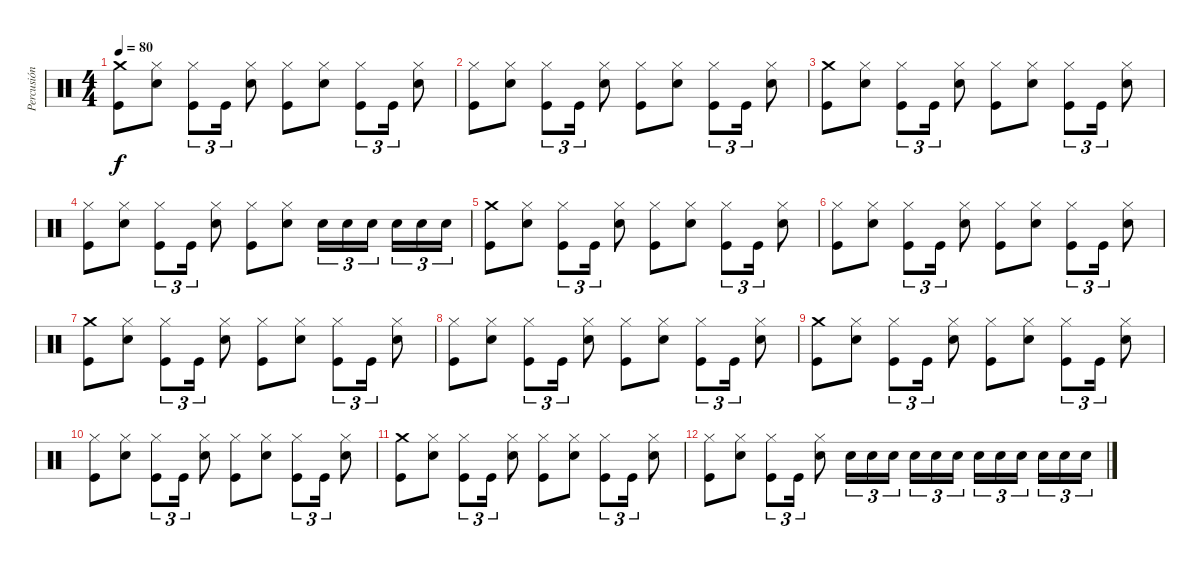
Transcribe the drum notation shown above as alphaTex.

\track ("Percusión" "Percusión") {mute instrument percussion}
\staff {score}
\articulation defaults
\ts (4 4)
\tempo 80
\clef neutral
\ks c
("Crash medium (hit)" "Kick (hit)").8{dy f} ("Hi-Hat (closed)" "Snare (hit) 2").8 ("Hi-Hat (closed)" "Kick (hit)").8{tu (3 2)} "Kick (hit)".16{tu (3 2)} ("Hi-Hat (closed)" "Snare (hit) 2").8 ("Hi-Hat (closed)" "Kick (hit)").8 ("Hi-Hat (closed)" "Snare (hit) 2").8 ("Hi-Hat (closed)" "Kick (hit)").8{tu (3 2)} "Kick (hit)".16{tu (3 2)} ("Hi-Hat (closed)" "Snare (hit) 2").8 |
("Hi-Hat (closed)" "Kick (hit)").8 ("Hi-Hat (closed)" "Snare (hit) 2").8 ("Hi-Hat (closed)" "Kick (hit)").8{tu (3 2)} "Kick (hit)".16{tu (3 2)} ("Hi-Hat (closed)" "Snare (hit) 2").8 ("Hi-Hat (closed)" "Kick (hit)").8 ("Hi-Hat (closed)" "Snare (hit) 2").8 ("Hi-Hat (closed)" "Kick (hit)").8{tu (3 2)} "Kick (hit)".16{tu (3 2)} ("Hi-Hat (closed)" "Snare (hit) 2").8 |
("Crash medium (hit)" "Kick (hit)").8 ("Hi-Hat (closed)" "Snare (hit) 2").8 ("Hi-Hat (closed)" "Kick (hit)").8{tu (3 2)} "Kick (hit)".16{tu (3 2)} ("Hi-Hat (closed)" "Snare (hit) 2").8 ("Hi-Hat (closed)" "Kick (hit)").8 ("Hi-Hat (closed)" "Snare (hit) 2").8 ("Hi-Hat (closed)" "Kick (hit)").8{tu (3 2)} "Kick (hit)".16{tu (3 2)} ("Hi-Hat (closed)" "Snare (hit) 2").8 |
("Hi-Hat (closed)" "Kick (hit)").8 ("Hi-Hat (closed)" "Snare (hit) 2").8 ("Hi-Hat (closed)" "Kick (hit)").8{tu (3 2)} "Kick (hit)".16{tu (3 2)} ("Hi-Hat (closed)" "Snare (hit) 2").8 ("Hi-Hat (closed)" "Kick (hit)").8 ("Hi-Hat (closed)" "Snare (hit) 2").8 "Snare (hit) 2".16{tu (3 2)} "Snare (hit) 2".16{tu (3 2)} "Snare (hit) 2".16{tu (3 2) beam splitsecondary} "Snare (hit) 2".16{tu (3 2)} "Snare (hit) 2".16{tu (3 2)} "Snare (hit) 2".16{tu (3 2)} |
("Crash medium (hit)" "Kick (hit)").8 ("Hi-Hat (closed)" "Snare (hit) 2").8 ("Hi-Hat (closed)" "Kick (hit)").8{tu (3 2)} "Kick (hit)".16{tu (3 2)} ("Hi-Hat (closed)" "Snare (hit) 2").8 ("Hi-Hat (closed)" "Kick (hit)").8 ("Hi-Hat (closed)" "Snare (hit) 2").8 ("Hi-Hat (closed)" "Kick (hit)").8{tu (3 2)} "Kick (hit)".16{tu (3 2)} ("Hi-Hat (closed)" "Snare (hit) 2").8 |
("Hi-Hat (closed)" "Kick (hit)").8 ("Hi-Hat (closed)" "Snare (hit) 2").8 ("Hi-Hat (closed)" "Kick (hit)").8{tu (3 2)} "Kick (hit)".16{tu (3 2)} ("Hi-Hat (closed)" "Snare (hit) 2").8 ("Hi-Hat (closed)" "Kick (hit)").8 ("Hi-Hat (closed)" "Snare (hit) 2").8 ("Hi-Hat (closed)" "Kick (hit)").8{tu (3 2)} "Kick (hit)".16{tu (3 2)} ("Hi-Hat (closed)" "Snare (hit) 2").8 |
("Crash medium (hit)" "Kick (hit)").8 ("Hi-Hat (closed)" "Snare (hit) 2").8 ("Hi-Hat (closed)" "Kick (hit)").8{tu (3 2)} "Kick (hit)".16{tu (3 2)} ("Hi-Hat (closed)" "Snare (hit) 2").8 ("Hi-Hat (closed)" "Kick (hit)").8 ("Hi-Hat (closed)" "Snare (hit) 2").8 ("Hi-Hat (closed)" "Kick (hit)").8{tu (3 2)} "Kick (hit)".16{tu (3 2)} ("Hi-Hat (closed)" "Snare (hit) 2").8 |
("Hi-Hat (closed)" "Kick (hit)").8 ("Hi-Hat (closed)" "Snare (hit) 2").8 ("Hi-Hat (closed)" "Kick (hit)").8{tu (3 2)} "Kick (hit)".16{tu (3 2)} ("Hi-Hat (closed)" "Snare (hit) 2").8 ("Hi-Hat (closed)" "Kick (hit)").8 ("Hi-Hat (closed)" "Snare (hit) 2").8 ("Hi-Hat (closed)" "Kick (hit)").8{tu (3 2)} "Kick (hit)".16{tu (3 2)} ("Hi-Hat (closed)" "Snare (hit) 2").8 |
("Crash medium (hit)" "Kick (hit)").8 ("Hi-Hat (closed)" "Snare (hit) 2").8 ("Hi-Hat (closed)" "Kick (hit)").8{tu (3 2)} "Kick (hit)".16{tu (3 2)} ("Hi-Hat (closed)" "Snare (hit) 2").8 ("Hi-Hat (closed)" "Kick (hit)").8 ("Hi-Hat (closed)" "Snare (hit) 2").8 ("Hi-Hat (closed)" "Kick (hit)").8{tu (3 2)} "Kick (hit)".16{tu (3 2)} ("Hi-Hat (closed)" "Snare (hit) 2").8 |
("Hi-Hat (closed)" "Kick (hit)").8 ("Hi-Hat (closed)" "Snare (hit) 2").8 ("Hi-Hat (closed)" "Kick (hit)").8{tu (3 2)} "Kick (hit)".16{tu (3 2)} ("Hi-Hat (closed)" "Snare (hit) 2").8 ("Hi-Hat (closed)" "Kick (hit)").8 ("Hi-Hat (closed)" "Snare (hit) 2").8 ("Hi-Hat (closed)" "Kick (hit)").8{tu (3 2)} "Kick (hit)".16{tu (3 2)} ("Hi-Hat (closed)" "Snare (hit) 2").8 |
("Crash medium (hit)" "Kick (hit)").8 ("Hi-Hat (closed)" "Snare (hit) 2").8 ("Hi-Hat (closed)" "Kick (hit)").8{tu (3 2)} "Kick (hit)".16{tu (3 2)} ("Hi-Hat (closed)" "Snare (hit) 2").8 ("Hi-Hat (closed)" "Kick (hit)").8 ("Hi-Hat (closed)" "Snare (hit) 2").8 ("Hi-Hat (closed)" "Kick (hit)").8{tu (3 2)} "Kick (hit)".16{tu (3 2)} ("Hi-Hat (closed)" "Snare (hit) 2").8 |
("Hi-Hat (closed)" "Kick (hit)").8 ("Hi-Hat (closed)" "Snare (hit) 2").8 ("Hi-Hat (closed)" "Kick (hit)").8{tu (3 2)} "Kick (hit)".16{tu (3 2)} ("Hi-Hat (closed)" "Snare (hit) 2").8 "Snare (hit) 2".16{tu (3 2)} "Snare (hit) 2".16{tu (3 2)} "Snare (hit) 2".16{tu (3 2) beam splitsecondary} "Snare (hit) 2".16{tu (3 2)} "Snare (hit) 2".16{tu (3 2)} "Snare (hit) 2".16{tu (3 2)} "Snare (hit) 2".16{tu (3 2)} "Snare (hit) 2".16{tu (3 2)} "Snare (hit) 2".16{tu (3 2) beam splitsecondary} "Snare (hit) 2".16{tu (3 2)} "Snare (hit) 2".16{tu (3 2)} "Snare (hit) 2".16{tu (3 2)}
